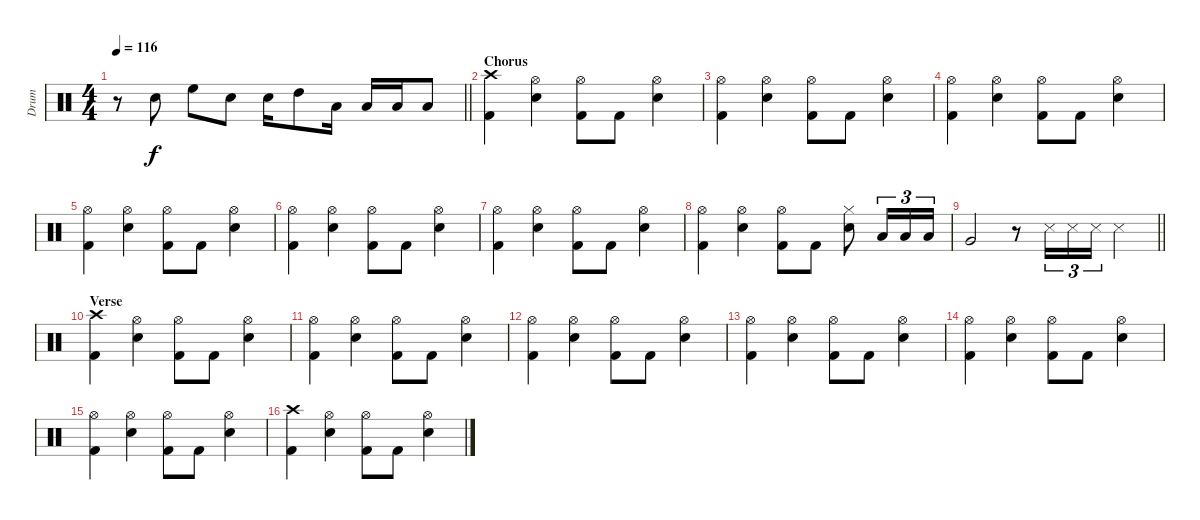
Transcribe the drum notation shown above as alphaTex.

\track ("Drum" "Drum") {instrument percussion}
\staff {score}
\articulation defaults
\ts (4 4)
\tempo 116
\clef neutral
\barLineRight lightlight
\ks c
r.8{dy f} "Electric Snare (hit)".8 "High Floor Tom (hit)".8 "Electric Snare (hit)".8 "Electric Snare (hit)".16 "High Tom (hit)".8 "Low Tom (hit)".16 "Low Tom (hit)".16 "Low Floor Tom (hit)".16 "Low Floor Tom (hit)".8 |
\section ("" "Chorus")
("Crash high (hit)" "Kick (hit) 2").4 ("Hi-Hat (open)" "Electric Snare (hit)").4 ("Hi-Hat (open)" "Kick (hit) 2").8 "Kick (hit) 2".8 ("Hi-Hat (open)" "Electric Snare (hit)").4 |
("Hi-Hat (open)" "Kick (hit) 2").4 ("Hi-Hat (open)" "Electric Snare (hit)").4 ("Hi-Hat (open)" "Kick (hit) 2").8 "Kick (hit) 2".8 ("Hi-Hat (open)" "Electric Snare (hit)").4 |
("Hi-Hat (open)" "Kick (hit) 2").4 ("Hi-Hat (open)" "Electric Snare (hit)").4 ("Hi-Hat (open)" "Kick (hit) 2").8 "Kick (hit) 2".8 ("Hi-Hat (open)" "Electric Snare (hit)").4 |
("Hi-Hat (open)" "Kick (hit) 2").4 ("Hi-Hat (open)" "Electric Snare (hit)").4 ("Hi-Hat (open)" "Kick (hit) 2").8 "Kick (hit) 2".8 ("Hi-Hat (open)" "Electric Snare (hit)").4 |
("Hi-Hat (open)" "Kick (hit) 2").4 ("Hi-Hat (open)" "Electric Snare (hit)").4 ("Hi-Hat (open)" "Kick (hit) 2").8 "Kick (hit) 2".8 ("Hi-Hat (open)" "Electric Snare (hit)").4 |
("Hi-Hat (open)" "Kick (hit) 2").4 ("Hi-Hat (open)" "Electric Snare (hit)").4 ("Hi-Hat (open)" "Kick (hit) 2").8 "Kick (hit) 2".8 ("Hi-Hat (open)" "Electric Snare (hit)").4 |
("Hi-Hat (open)" "Kick (hit) 2").4 ("Hi-Hat (open)" "Electric Snare (hit)").4 ("Hi-Hat (open)" "Kick (hit) 2").8 "Kick (hit) 2".8 ("Hi-Hat (closed)" "Electric Snare (hit)").8 "Low Tom (hit)".16{tu (3 2)} "Low Tom (hit)".16{tu (3 2)} "Low Tom (hit)".16{tu (3 2)} |
\barLineRight lightlight "Very Low Tom (hit)".2
r.8 "Snare (side stick) 3".16{tu (3 2)} "Snare (side stick) 3".16{tu (3 2)} "Snare (side stick) 3".16{tu (3 2)} "Snare (side stick) 3".4 |
\section ("" "Verse")
("Crash high (hit)" "Kick (hit) 2").4 ("Hi-Hat (open)" "Electric Snare (hit)").4 ("Hi-Hat (open)" "Kick (hit) 2").8 "Kick (hit) 2".8 ("Hi-Hat (open)" "Electric Snare (hit)").4 |
("Hi-Hat (open)" "Kick (hit) 2").4 ("Hi-Hat (open)" "Electric Snare (hit)").4 ("Hi-Hat (open)" "Kick (hit) 2").8 "Kick (hit) 2".8 ("Hi-Hat (open)" "Electric Snare (hit)").4 |
("Hi-Hat (open)" "Kick (hit) 2").4 ("Hi-Hat (open)" "Electric Snare (hit)").4 ("Hi-Hat (open)" "Kick (hit) 2").8 "Kick (hit) 2".8 ("Hi-Hat (open)" "Electric Snare (hit)").4 |
("Hi-Hat (open)" "Kick (hit) 2").4 ("Hi-Hat (open)" "Electric Snare (hit)").4 ("Hi-Hat (open)" "Kick (hit) 2").8 "Kick (hit) 2".8 ("Hi-Hat (open)" "Electric Snare (hit)").4 |
("Hi-Hat (open)" "Kick (hit) 2").4 ("Hi-Hat (open)" "Electric Snare (hit)").4 ("Hi-Hat (open)" "Kick (hit) 2").8 "Kick (hit) 2".8 ("Hi-Hat (open)" "Electric Snare (hit)").4 |
("Hi-Hat (open)" "Kick (hit) 2").4 ("Hi-Hat (open)" "Electric Snare (hit)").4 ("Hi-Hat (open)" "Kick (hit) 2").8 "Kick (hit) 2".8 ("Hi-Hat (open)" "Electric Snare (hit)").4 |
("Crash high (hit)" "Kick (hit) 2").4 ("Hi-Hat (open)" "Electric Snare (hit)").4 ("Hi-Hat (open)" "Kick (hit) 2").8 "Kick (hit) 2".8 ("Hi-Hat (open)" "Electric Snare (hit)").4
